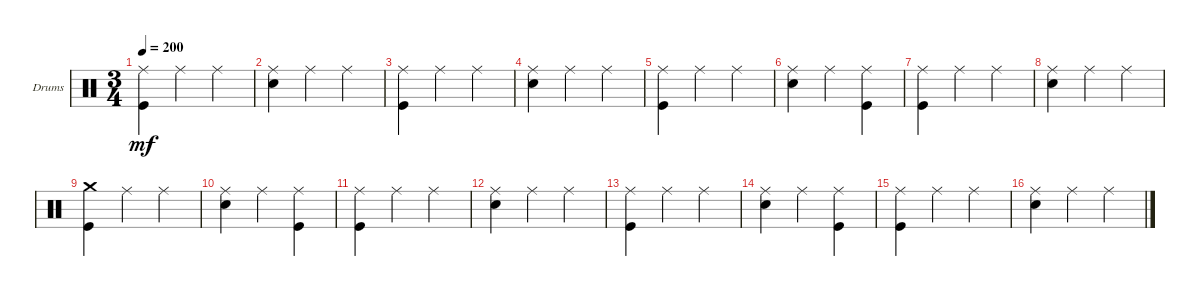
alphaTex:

\bracketExtendMode groupsimilarinstruments
\firstSystemTrackNameOrientation horizontal
\otherSystemsTrackNameOrientation horizontal
\track ("Drumkit" "Drums") {instrument percussion}
\staff {score}
\articulation defaults
\ts (3 4)
\tempo 200
\clef neutral
\scale
0.333333
\ks c
("Kick (hit)" "Ride (middle)").4{dy mf} "Ride (middle)".4 "Ride (middle)".4 |
\scale
0.333333 ("Snare (hit) 2" "Ride (middle)").4 "Ride (middle)".4 "Ride (middle)".4 |
\scale
0.333333 ("Kick (hit)" "Ride (middle)").4 "Ride (middle)".4 "Ride (middle)".4 |
\scale
0.333333 ("Snare (hit) 2" "Ride (middle)").4 "Ride (middle)".4 "Ride (middle)".4 |
\scale
0.333333 ("Kick (hit)" "Ride (middle)").4 "Ride (middle)".4 "Ride (middle)".4 |
\scale
0.333333 ("Snare (hit) 2" "Ride (middle)").4 "Ride (middle)".4 ("Ride (middle)" "Kick (hit)").4 |
\scale
0.333333 ("Kick (hit)" "Ride (middle)").4 "Ride (middle)".4 "Ride (middle)".4 |
\scale
0.333333 ("Snare (hit) 2" "Ride (middle)").4 "Ride (middle)".4 "Ride (middle)".4 |
\scale
0.333333 ("Kick (hit)" "Crash medium (hit)").4 "Ride (middle)".4 "Ride (middle)".4 |
\scale
0.333333 ("Snare (hit) 2" "Ride (middle)").4 "Ride (middle)".4 ("Ride (middle)" "Kick (hit)").4 |
\scale
0.333333 ("Kick (hit)" "Ride (middle)").4 "Ride (middle)".4 "Ride (middle)".4 |
\scale
0.333333 ("Snare (hit) 2" "Ride (middle)").4 "Ride (middle)".4 "Ride (middle)".4 |
\scale
0.333333 ("Kick (hit)" "Ride (middle)").4 "Ride (middle)".4 "Ride (middle)".4 |
\scale
0.333333 ("Snare (hit) 2" "Ride (middle)").4 "Ride (middle)".4 ("Ride (middle)" "Kick (hit)").4 |
\scale
0.333333 ("Kick (hit)" "Ride (middle)").4 "Ride (middle)".4 "Ride (middle)".4 |
\scale
0.333333 ("Snare (hit) 2" "Ride (middle)").4 "Ride (middle)".4 "Ride (middle)".4
